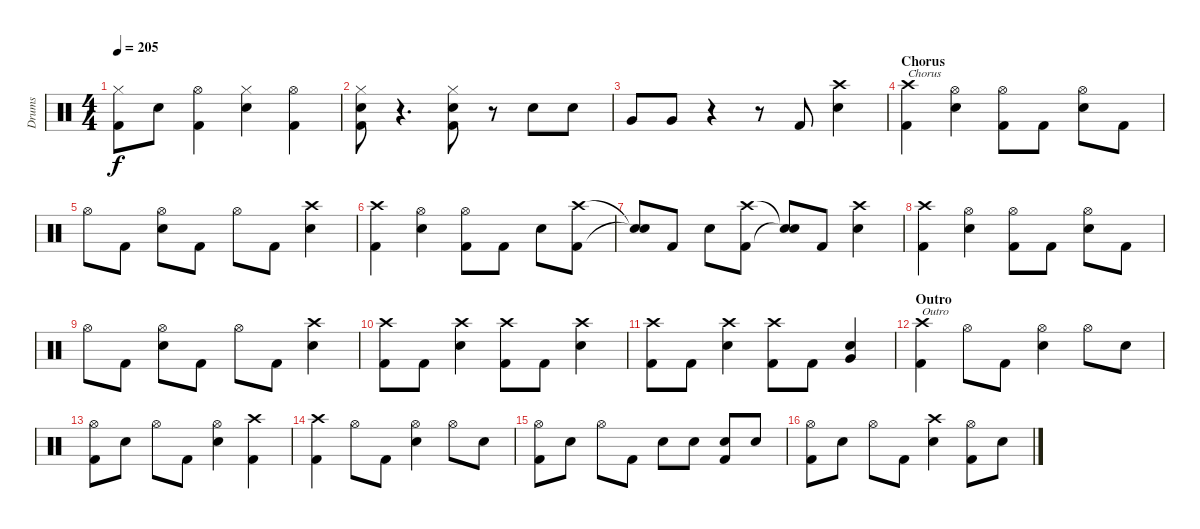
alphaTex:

\track ("Drums" "Drums") {instrument percussion}
\staff {score}
\articulation defaults
\ts (4 4)
\tempo 205
\clef neutral
\ks c
("Hi-Hat (closed)" "Kick (hit) 2").8{dy f} "Electric Snare (hit)".8 ("Hi-Hat (open)" "Kick (hit) 2").4 ("Hi-Hat (closed)" "Electric Snare (hit)").4 ("Hi-Hat (open)" "Kick (hit) 2").4 |
("Hi-Hat (closed)" "Electric Snare (hit)" "Kick (hit) 2").8 r.4{d} ("Hi-Hat (closed)" "Electric Snare (hit)" "Kick (hit) 2").8 r.8 "Electric Snare (hit)".8 "Electric Snare (hit)".8 |
"Very Low Tom (hit)".8 "Very Low Tom (hit)".8 r.4 r.8 "Kick (hit) 2".8 ("Crash high (hit)" "Electric Snare (hit)").4 |
\section ("" "Chorus")
("Crash high (hit)" "Kick (hit) 2").4{txt "Chorus"} ("Hi-Hat (open)" "Electric Snare (hit)").4 ("Hi-Hat (open)" "Kick (hit) 2").8 "Kick (hit) 2".8 ("Hi-Hat (open)" "Electric Snare (hit)").8 "Kick (hit) 2".8 |
"Hi-Hat (open)".8 "Kick (hit) 2".8 ("Hi-Hat (open)" "Electric Snare (hit)").8 "Kick (hit) 2".8 "Hi-Hat (open)".8 "Kick (hit) 2".8 ("Crash high (hit)" "Electric Snare (hit)").4 |
("Crash high (hit)" "Kick (hit) 2").4 ("Hi-Hat (open)" "Electric Snare (hit)").4 ("Hi-Hat (open)" "Kick (hit) 2").8 "Kick (hit) 2".8 "Electric Snare (hit)".8 ("Crash high (hit)" "Kick (hit) 2").8 |
("Snare (hit)"{t} "Snare (hit)"{t}).8 "Kick (hit) 2".8 "Electric Snare (hit)".8 ("Crash high (hit)" "Kick (hit) 2").8 ("Snare (hit)"{t} "Snare (hit)"{t}).8 "Kick (hit) 2".8 ("Crash high (hit)" "Electric Snare (hit)").4 |
("Crash high (hit)" "Kick (hit) 2").4 ("Hi-Hat (open)" "Electric Snare (hit)").4 ("Hi-Hat (open)" "Kick (hit) 2").8 "Kick (hit) 2".8 ("Hi-Hat (open)" "Electric Snare (hit)").8 "Kick (hit) 2".8 |
"Hi-Hat (open)".8 "Kick (hit) 2".8 ("Hi-Hat (open)" "Electric Snare (hit)").8 "Kick (hit) 2".8 "Hi-Hat (open)".8 "Kick (hit) 2".8 ("Crash high (hit)" "Electric Snare (hit)").4 |
("Crash high (hit)" "Kick (hit) 2").8 "Kick (hit) 2".8 ("Crash high (hit)" "Electric Snare (hit)").4 ("Crash high (hit)" "Kick (hit) 2").8 "Kick (hit) 2".8 ("Crash high (hit)" "Electric Snare (hit)").4 |
("Crash high (hit)" "Kick (hit) 2").8 "Kick (hit) 2".8 ("Crash high (hit)" "Electric Snare (hit)").4 ("Crash high (hit)" "Kick (hit) 2").8 "Kick (hit) 2".8 ("Electric Snare (hit)" "Very Low Tom (hit)").4 |
\section ("" "Outro")
("Crash high (hit)" "Kick (hit) 2").4{txt "Outro"} "Hi-Hat (open)".8 "Kick (hit) 2".8 ("Hi-Hat (open)" "Electric Snare (hit)").4 "Hi-Hat (open)".8 "Electric Snare (hit)".8 |
("Hi-Hat (open)" "Kick (hit) 2").8 "Electric Snare (hit)".8 "Hi-Hat (open)".8 "Kick (hit) 2".8 ("Hi-Hat (open)" "Electric Snare (hit)").4 ("Crash high (hit)" "Kick (hit) 2").4 |
("Crash high (hit)" "Kick (hit) 2").4 "Hi-Hat (open)".8 "Kick (hit) 2".8 ("Hi-Hat (open)" "Electric Snare (hit)").4 "Hi-Hat (open)".8 "Electric Snare (hit)".8 |
("Hi-Hat (open)" "Kick (hit) 2").8 "Electric Snare (hit)".8 "Hi-Hat (open)".8 "Kick (hit) 2".8 "Electric Snare (hit)".8 "Electric Snare (hit)".8 ("Electric Snare (hit)" "Kick (hit) 2").8 "Electric Snare (hit)".8 |
("Hi-Hat (open)" "Kick (hit) 2").8 "Electric Snare (hit)".8 "Hi-Hat (open)".8 "Kick (hit) 2".8 ("Crash high (hit)" "Electric Snare (hit)").4 ("Hi-Hat (open)" "Kick (hit) 2").8 "Electric Snare (hit)".8
